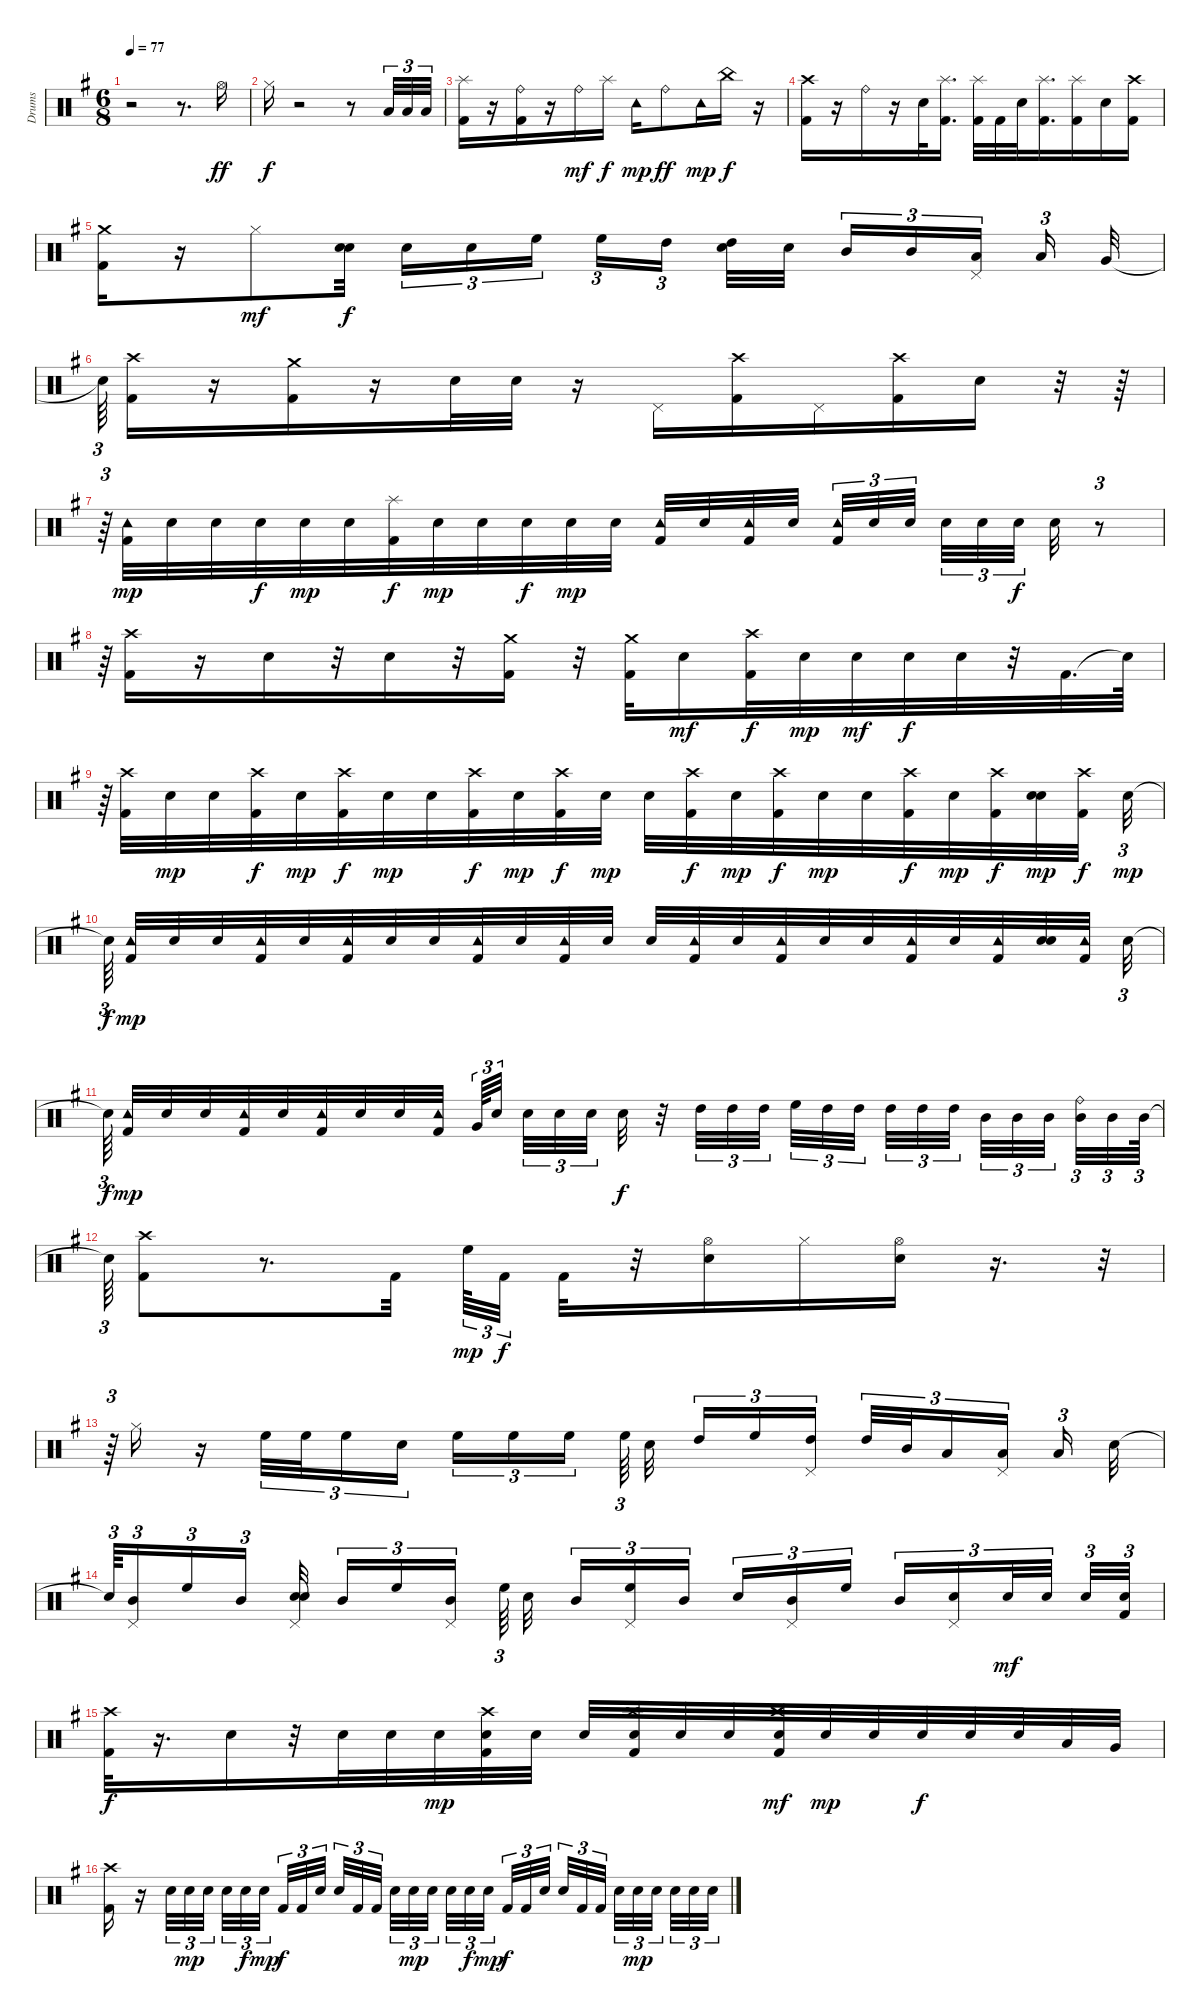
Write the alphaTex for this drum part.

\track ("Drums" "Drums") {instrument percussion}
\staff {score}
\articulation defaults
\ts (6 8)
\tempo 77
\clef neutral
\ks g
r.2{dy p} r.8{d} "Hi-Hat (open)".16{dy ff} |
"Hi-Hat (closed)".16{dy f} r.2 r.8 "Low Tom (hit)".32{tu (3 2)} "Low Tom (hit)".32{tu (3 2)} "Low Tom (hit)".32{tu (3 2)} |
("Kick (hit) 2" "Splash (hit)").16 r.16 ("Kick (hit) 2" "Ride (bell)").16 r.16 "Ride (bell)".16{dy mf} "Splash (hit)".16{dy f} "Tambourine (hit)".16{dy mp} "Ride (bell)".8{dy ff} "Tambourine (hit)".16{dy mp} "China (hit)".16{dy f} r.16 |
("Kick (hit) 2" "Crash high (hit)").16 r.16 "Ride (bell)".16 r.16 "Electric Snare (hit)".32 ("Splash (hit)" "Kick (hit) 2").16{d} ("Splash (hit)" "Kick (hit) 2").32 "Kick (hit) 2".32 "Electric Snare (hit)".32 ("Kick (hit) 2" "Splash (hit)").16{d} ("Kick (hit) 2" "Splash (hit)").16 "Electric Snare (hit)".16 ("Kick (hit) 2" "Crash high (hit)").16 |
("Crash medium (hit)" "Kick (hit) 2").16 r.16 "Hi-Hat (closed)".8{dy mf} ("Electric Snare (hit)" "Electric Snare (hit)").32{dy f beam splitsecondary} "Electric Snare (hit)".16{tu (3 2)} "Electric Snare (hit)".16{tu (3 2)} "High Floor Tom (hit)".16{tu (3 2)} "High Floor Tom (hit)".16{tu (3 2)} "High Tom (hit)".16{tu (3 2) beam splitsecondary} ("High Tom (hit)" "Electric Snare (hit)").32 "Electric Snare (hit)".32{beam splitsecondary} "Mid Tom (hit)".16{tu (3 2)} "Mid Tom (hit)".16{tu (3 2)} ("Low Tom (hit)" "Pedal Hi-Hat (hit)").16{tu (3 2) beam splitsecondary} "Low Tom (hit)".16{tu (3 2)} "Very Low Tom (hit)".32 |
"Snare (hit)"{t}.64{tu (3 2)} ("Kick (hit) 2" "Crash high (hit)").16 r.16 ("Crash medium (hit)" "Kick (hit) 2").16 r.16 "Electric Snare (hit)".32 "Electric Snare (hit)".32 r.16 "Pedal Hi-Hat (hit)".16 ("Kick (hit) 2" "Crash high (hit)").16 "Pedal Hi-Hat (hit)".16 ("Crash high (hit)" "Kick (hit) 2").16 "Electric Snare (hit)".16 r.32 r.64 |
r.64{tu (3 2)} ("Kick (hit) 2" "Tambourine (hit)").32{dy mp} "Electric Snare (hit)".32 "Electric Snare (hit)".32 "Electric Snare (hit)".32{dy f} "Electric Snare (hit)".32{dy mp} "Electric Snare (hit)".32 ("Kick (hit) 2" "Splash (hit)").32{dy f} "Electric Snare (hit)".32{dy mp} "Electric Snare (hit)".32 "Electric Snare (hit)".32{dy f} "Electric Snare (hit)".32{dy mp} "Electric Snare (hit)".32 ("Kick (hit) 2" "Tambourine (hit)").32 "Electric Snare (hit)".32 ("Kick (hit) 2" "Tambourine (hit)").32 "Electric Snare (hit)".32{beam splitsecondary} ("Kick (hit) 2" "Tambourine (hit)").32{tu (3 2)} "Electric Snare (hit)".32{tu (3 2)} "Electric Snare (hit)".32{tu (3 2) beam splitsecondary} "Electric Snare (hit)".32{tu (3 2)} "Electric Snare (hit)".32{tu (3 2)} "Electric Snare (hit)".32{tu (3 2) dy f beam splitsecondary} "Electric Snare (hit)".32 r.8{tu (3 2)} |
r.64{tu (3 2)} ("Kick (hit) 2" "Crash high (hit)").16 r.16 "Electric Snare (hit)".16 r.32 "Electric Snare (hit)".16 r.32 ("Kick (hit) 2" "Crash medium (hit)").16 r.32 ("Kick (hit) 2" "Crash medium (hit)").32 "Electric Snare (hit)".16{dy mf} ("Kick (hit) 2" "Crash high (hit)").32{dy f} "Electric Snare (hit)".32{dy mp} "Electric Snare (hit)".32{dy mf} "Electric Snare (hit)".32{dy f} "Electric Snare (hit)".32 r.32 "Kick (hit) 2".32{d} "Snare (hit)"{t}.64 |
r.64{tu (3 2)} ("Kick (hit) 2" "Crash high (hit)").32 "Electric Snare (hit)".32{dy mp} "Electric Snare (hit)".32 ("Kick (hit) 2" "Crash high (hit)").32{dy f} "Electric Snare (hit)".32{dy mp} ("Kick (hit) 2" "Crash high (hit)").32{dy f} "Electric Snare (hit)".32{dy mp} "Electric Snare (hit)".32 ("Kick (hit) 2" "Crash high (hit)").32{dy f} "Electric Snare (hit)".32{dy mp} ("Kick (hit) 2" "Crash high (hit)").32{dy f} "Electric Snare (hit)".32{dy mp} "Electric Snare (hit)".32 ("Kick (hit) 2" "Crash high (hit)").32{dy f} "Electric Snare (hit)".32{dy mp} ("Kick (hit) 2" "Crash high (hit)").32{dy f} "Electric Snare (hit)".32{dy mp} "Electric Snare (hit)".32 ("Kick (hit) 2" "Crash high (hit)").32{dy f} "Electric Snare (hit)".32{dy mp} ("Kick (hit) 2" "Crash high (hit)").32{dy f} ("Electric Snare (hit)" "Electric Snare (hit)").32{dy mp} ("Kick (hit) 2" "Crash high (hit)").32{dy f beam splitsecondary} "Electric Snare (hit)".32{tu (3 2) dy mp} |
"Snare (hit)"{t}.64{tu (3 2) dy f beam splitsecondary} ("Kick (hit) 2" "Tambourine (hit)").32{dy mp} "Electric Snare (hit)".32 "Electric Snare (hit)".32 ("Kick (hit) 2" "Tambourine (hit)").32 "Electric Snare (hit)".32 ("Kick (hit) 2" "Tambourine (hit)").32 "Electric Snare (hit)".32 "Electric Snare (hit)".32 ("Kick (hit) 2" "Tambourine (hit)").32 "Electric Snare (hit)".32 ("Kick (hit) 2" "Tambourine (hit)").32 "Electric Snare (hit)".32 "Electric Snare (hit)".32 ("Kick (hit) 2" "Tambourine (hit)").32 "Electric Snare (hit)".32 ("Kick (hit) 2" "Tambourine (hit)").32 "Electric Snare (hit)".32 "Electric Snare (hit)".32 ("Kick (hit) 2" "Tambourine (hit)").32 "Electric Snare (hit)".32 ("Kick (hit) 2" "Tambourine (hit)").32 ("Electric Snare (hit)" "Electric Snare (hit)").32 ("Kick (hit) 2" "Tambourine (hit)").32{beam splitsecondary} "Electric Snare (hit)".32{tu (3 2)} |
"Snare (hit)"{t}.64{tu (3 2) dy f beam splitsecondary} ("Kick (hit) 2" "Tambourine (hit)").32{dy mp} "Electric Snare (hit)".32 "Electric Snare (hit)".32 ("Kick (hit) 2" "Tambourine (hit)").32 "Electric Snare (hit)".32 ("Kick (hit) 2" "Tambourine (hit)").32 "Electric Snare (hit)".32 "Electric Snare (hit)".32 ("Kick (hit) 2" "Tambourine (hit)").32{beam splitsecondary} "Very Low Tom (hit)".64{tu (3 2)} "Electric Snare (hit)".32{tu (3 2) beam splitsecondary} "Electric Snare (hit)".32{tu (3 2)} "Electric Snare (hit)".32{tu (3 2)} "Electric Snare (hit)".32{tu (3 2)} "Electric Snare (hit)".32{dy f} r.32 "High Tom (hit)".32{tu (3 2)} "High Tom (hit)".32{tu (3 2)} "High Tom (hit)".32{tu (3 2) beam splitsecondary} "High Floor Tom (hit)".32{tu (3 2)} "High Tom (hit)".32{tu (3 2)} "High Tom (hit)".32{tu (3 2) beam splitsecondary} "High Tom (hit)".32{tu (3 2)} "High Tom (hit)".32{tu (3 2)} "High Tom (hit)".32{tu (3 2) beam splitsecondary} "Mid Tom (hit)".32{tu (3 2)} "Mid Tom (hit)".32{tu (3 2)} "Mid Tom (hit)".32{tu (3 2) beam splitsecondary} ("Mid Tom (hit)" "Ride (bell)").32{tu (3 2)} "Mid Tom (hit)".32{tu (3 2)} "Mid Tom (hit)".64{tu (3 2)} |
"Snare (hit)"{t}.64{tu (3 2)} ("Kick (hit) 2" "Crash high (hit)").8 r.8{d} "Kick (hit) 2".32{beam splitsecondary} "High Floor Tom (hit)".64{tu (3 2) dy mp} "Kick (hit) 2".32{tu (3 2) dy f} "Kick (hit) 2".32 r.32 ("Electric Snare (hit)" "Hi-Hat (open)").16 "Hi-Hat (closed)".16 ("Electric Snare (hit)" "Hi-Hat (open)").16 r.16{d} r.32{tu (3 2)} |
r.64{tu (3 2)} "Hi-Hat (closed)".16 r.16 "High Floor Tom (hit)".32{tu (3 2)} "High Floor Tom (hit)".32{tu (3 2)} "High Floor Tom (hit)".16{tu (3 2)} "Electric Snare (hit)".16{tu (3 2) beam splitsecondary} "High Floor Tom (hit)".16{tu (3 2)} "High Floor Tom (hit)".16{tu (3 2)} "High Floor Tom (hit)".16{tu (3 2)} "High Floor Tom (hit)".64{tu (3 2) beam splitsecondary} "Electric Snare (hit)".32{beam splitsecondary} "High Tom (hit)".16{tu (3 2)} "High Floor Tom (hit)".16{tu (3 2)} ("High Tom (hit)" "Pedal Hi-Hat (hit)").16{tu (3 2) beam splitsecondary} "High Tom (hit)".32{tu (3 2)} "Mid Tom (hit)".32{tu (3 2)} "Low Tom (hit)".16{tu (3 2)} ("Pedal Hi-Hat (hit)" "Low Tom (hit)").16{tu (3 2) beam splitsecondary} "Low Tom (hit)".16{tu (3 2)} "Electric Snare (hit)".32 |
"Snare (hit)"{t}.64{tu (3 2)} ("Pedal Hi-Hat (hit)" "Mid Tom (hit)").16{tu (3 2)} "High Floor Tom (hit)".16{tu (3 2)} "Mid Tom (hit)".16{tu (3 2) beam splitsecondary} ("Pedal Hi-Hat (hit)" "Electric Snare (hit)" "Electric Snare (hit)").32{beam splitsecondary} "Mid Tom (hit)".16{tu (3 2)} "High Floor Tom (hit)".16{tu (3 2)} ("Pedal Hi-Hat (hit)" "Mid Tom (hit)").16{tu (3 2) beam splitsecondary} "High Floor Tom (hit)".64{tu (3 2) beam splitsecondary} "Electric Snare (hit)".32 "Mid Tom (hit)".16{tu (3 2)} ("Pedal Hi-Hat (hit)" "High Floor Tom (hit)").16{tu (3 2)} "Mid Tom (hit)".16{tu (3 2) beam splitsecondary} "Electric Snare (hit)".16{tu (3 2)} ("Pedal Hi-Hat (hit)" "Mid Tom (hit)").16{tu (3 2)} "High Floor Tom (hit)".16{tu (3 2) beam splitsecondary} "Mid Tom (hit)".16{tu (3 2)} ("Electric Snare (hit)" "Pedal Hi-Hat (hit)").16{tu (3 2)} "Electric Snare (hit)".32{tu (3 2) dy mf} "Electric Snare (hit)".32{tu (3 2) beam splitsecondary} "Electric Snare (hit)".32{tu (3 2)} ("Kick (hit) 2" "Electric Snare (hit)").32{tu (3 2)} |
("Kick (hit) 2" "Crash high (hit)").32{dy f} r.16{d} "Electric Snare (hit)".16 r.32 "Electric Snare (hit)".32 "Electric Snare (hit)".32 "Electric Snare (hit)".32{dy mp} ("Kick (hit) 2" "Crash high (hit)" "Electric Snare (hit)").32 "Electric Snare (hit)".32 "Electric Snare (hit)".32 ("Crash high (hit)" "Kick (hit) 2" "Electric Snare (hit)").32 "Electric Snare (hit)".32 "Electric Snare (hit)".32 ("Electric Snare (hit)" "Kick (hit) 2" "Crash high (hit)").32{dy mf} "Electric Snare (hit)".32{dy mp} "Electric Snare (hit)".32 "Electric Snare (hit)".32{dy f} "Electric Snare (hit)".32 "Electric Snare (hit)".32 "Low Tom (hit)".32 "Very Low Tom (hit)".32 |
("Kick (hit) 2" "Crash high (hit)").16 r.16 "Electric Snare (hit)".32{tu (3 2)} "Electric Snare (hit)".32{tu (3 2) dy mp} "Electric Snare (hit)".32{tu (3 2) beam splitsecondary} "Electric Snare (hit)".32{tu (3 2)} "Electric Snare (hit)".32{tu (3 2) dy f} "Electric Snare (hit)".32{tu (3 2) dy mp beam splitsecondary} "Kick (hit) 2".32{tu (3 2) dy f} "Kick (hit) 2".32{tu (3 2)} "Electric Snare (hit)".32{tu (3 2) beam splitsecondary} "Electric Snare (hit)".32{tu (3 2)} "Kick (hit) 2".32{tu (3 2)} "Kick (hit) 2".32{tu (3 2)} "Electric Snare (hit)".32{tu (3 2)} "Electric Snare (hit)".32{tu (3 2) dy mp} "Electric Snare (hit)".32{tu (3 2) beam splitsecondary} "Electric Snare (hit)".32{tu (3 2)} "Electric Snare (hit)".32{tu (3 2) dy f} "Electric Snare (hit)".32{tu (3 2) dy mp beam splitsecondary} "Kick (hit) 2".32{tu (3 2) dy f} "Kick (hit) 2".32{tu (3 2)} "Electric Snare (hit)".32{tu (3 2) beam splitsecondary} "Electric Snare (hit)".32{tu (3 2)} "Kick (hit) 2".32{tu (3 2)} "Kick (hit) 2".32{tu (3 2) beam splitsecondary} "Electric Snare (hit)".32{tu (3 2)} "Electric Snare (hit)".32{tu (3 2) dy mp} "Electric Snare (hit)".32{tu (3 2) beam splitsecondary} "Electric Snare (hit)".32{tu (3 2)} "Electric Snare (hit)".32{tu (3 2)} "Electric Snare (hit)".32{tu (3 2)}
